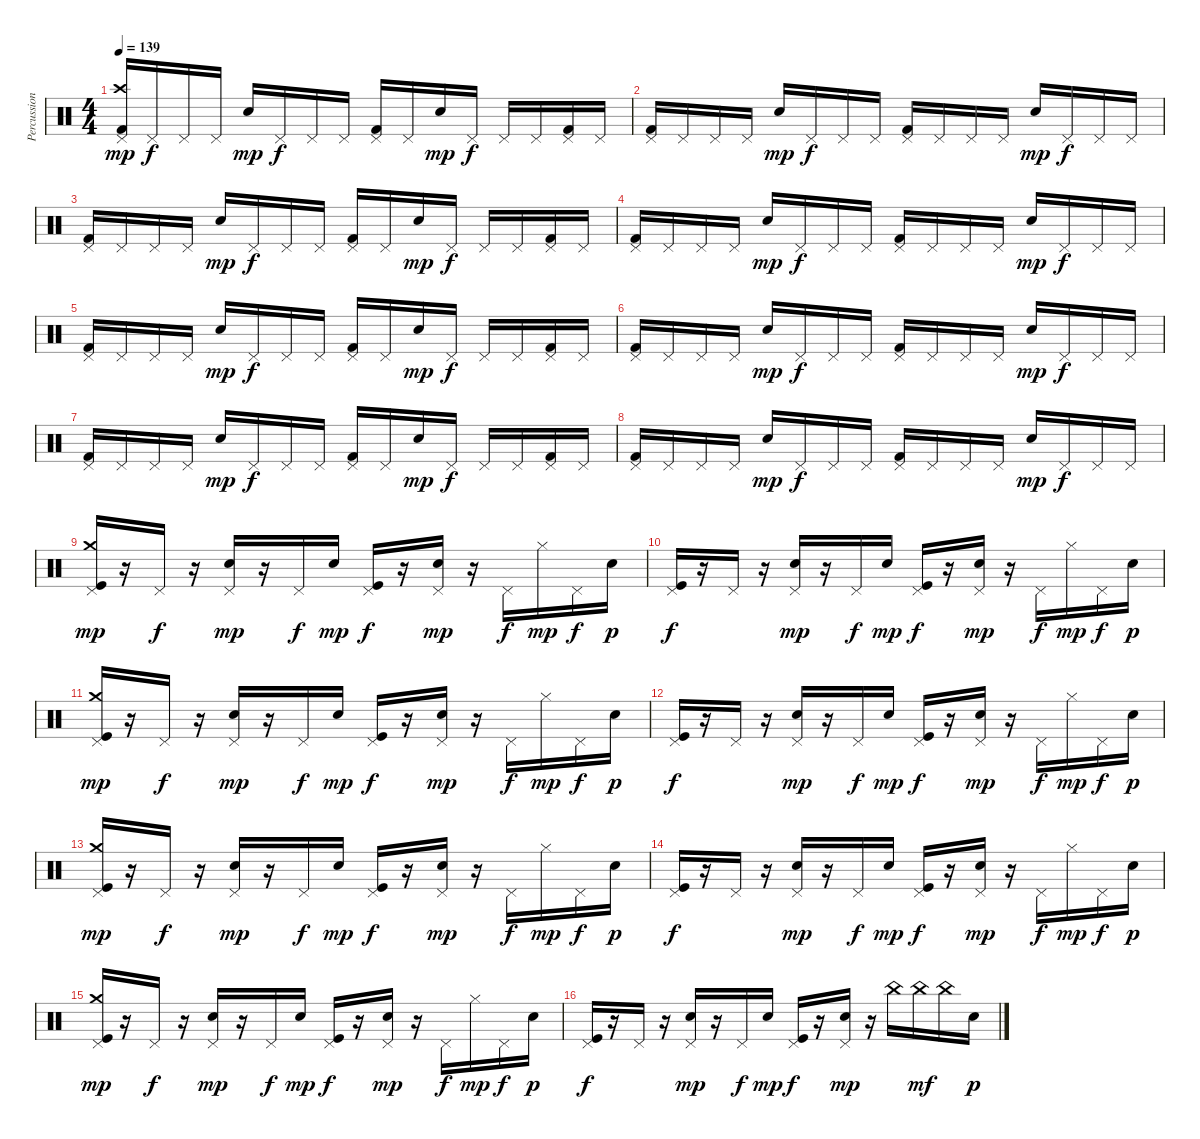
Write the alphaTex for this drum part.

\track ("Percussion" "Percussion") {instrument percussion}
\staff {score}
\articulation defaults
\ts (4 4)
\tempo 139
\clef neutral
\ks c
("Kick (hit) 2" "Crash high (hit)" "Pedal Hi-Hat (hit)").16{dy mp} "Pedal Hi-Hat (hit)".16{dy f} "Pedal Hi-Hat (hit)".16 "Pedal Hi-Hat (hit)".16 "Electric Snare (hit)".16{dy mp} "Pedal Hi-Hat (hit)".16{dy f} "Pedal Hi-Hat (hit)".16 "Pedal Hi-Hat (hit)".16 ("Kick (hit) 2" "Pedal Hi-Hat (hit)").16 "Pedal Hi-Hat (hit)".16 "Electric Snare (hit)".16{dy mp} "Pedal Hi-Hat (hit)".16{dy f} "Pedal Hi-Hat (hit)".16 "Pedal Hi-Hat (hit)".16 ("Kick (hit) 2" "Pedal Hi-Hat (hit)").16 "Pedal Hi-Hat (hit)".16 |
("Kick (hit) 2" "Pedal Hi-Hat (hit)").16 "Pedal Hi-Hat (hit)".16 "Pedal Hi-Hat (hit)".16 "Pedal Hi-Hat (hit)".16 "Electric Snare (hit)".16{dy mp} "Pedal Hi-Hat (hit)".16{dy f} "Pedal Hi-Hat (hit)".16 "Pedal Hi-Hat (hit)".16 ("Kick (hit) 2" "Pedal Hi-Hat (hit)").16 "Pedal Hi-Hat (hit)".16 "Pedal Hi-Hat (hit)".16 "Pedal Hi-Hat (hit)".16 "Electric Snare (hit)".16{dy mp} "Pedal Hi-Hat (hit)".16{dy f} "Pedal Hi-Hat (hit)".16 "Pedal Hi-Hat (hit)".16 |
("Kick (hit) 2" "Pedal Hi-Hat (hit)").16 "Pedal Hi-Hat (hit)".16 "Pedal Hi-Hat (hit)".16 "Pedal Hi-Hat (hit)".16 "Electric Snare (hit)".16{dy mp} "Pedal Hi-Hat (hit)".16{dy f} "Pedal Hi-Hat (hit)".16 "Pedal Hi-Hat (hit)".16 ("Kick (hit) 2" "Pedal Hi-Hat (hit)").16 "Pedal Hi-Hat (hit)".16 "Electric Snare (hit)".16{dy mp} "Pedal Hi-Hat (hit)".16{dy f} "Pedal Hi-Hat (hit)".16 "Pedal Hi-Hat (hit)".16 ("Kick (hit) 2" "Pedal Hi-Hat (hit)").16 "Pedal Hi-Hat (hit)".16 |
("Kick (hit) 2" "Pedal Hi-Hat (hit)").16 "Pedal Hi-Hat (hit)".16 "Pedal Hi-Hat (hit)".16 "Pedal Hi-Hat (hit)".16 "Electric Snare (hit)".16{dy mp} "Pedal Hi-Hat (hit)".16{dy f} "Pedal Hi-Hat (hit)".16 "Pedal Hi-Hat (hit)".16 ("Kick (hit) 2" "Pedal Hi-Hat (hit)").16 "Pedal Hi-Hat (hit)".16 "Pedal Hi-Hat (hit)".16 "Pedal Hi-Hat (hit)".16 "Electric Snare (hit)".16{dy mp} "Pedal Hi-Hat (hit)".16{dy f} "Pedal Hi-Hat (hit)".16 "Pedal Hi-Hat (hit)".16 |
("Kick (hit) 2" "Pedal Hi-Hat (hit)").16 "Pedal Hi-Hat (hit)".16 "Pedal Hi-Hat (hit)".16 "Pedal Hi-Hat (hit)".16 "Electric Snare (hit)".16{dy mp} "Pedal Hi-Hat (hit)".16{dy f} "Pedal Hi-Hat (hit)".16 "Pedal Hi-Hat (hit)".16 ("Kick (hit) 2" "Pedal Hi-Hat (hit)").16 "Pedal Hi-Hat (hit)".16 "Electric Snare (hit)".16{dy mp} "Pedal Hi-Hat (hit)".16{dy f} "Pedal Hi-Hat (hit)".16 "Pedal Hi-Hat (hit)".16 ("Kick (hit) 2" "Pedal Hi-Hat (hit)").16 "Pedal Hi-Hat (hit)".16 |
("Kick (hit) 2" "Pedal Hi-Hat (hit)").16 "Pedal Hi-Hat (hit)".16 "Pedal Hi-Hat (hit)".16 "Pedal Hi-Hat (hit)".16 "Electric Snare (hit)".16{dy mp} "Pedal Hi-Hat (hit)".16{dy f} "Pedal Hi-Hat (hit)".16 "Pedal Hi-Hat (hit)".16 ("Kick (hit) 2" "Pedal Hi-Hat (hit)").16 "Pedal Hi-Hat (hit)".16 "Pedal Hi-Hat (hit)".16 "Pedal Hi-Hat (hit)".16 "Electric Snare (hit)".16{dy mp} "Pedal Hi-Hat (hit)".16{dy f} "Pedal Hi-Hat (hit)".16 "Pedal Hi-Hat (hit)".16 |
("Kick (hit) 2" "Pedal Hi-Hat (hit)").16 "Pedal Hi-Hat (hit)".16 "Pedal Hi-Hat (hit)".16 "Pedal Hi-Hat (hit)".16 "Electric Snare (hit)".16{dy mp} "Pedal Hi-Hat (hit)".16{dy f} "Pedal Hi-Hat (hit)".16 "Pedal Hi-Hat (hit)".16 ("Kick (hit) 2" "Pedal Hi-Hat (hit)").16 "Pedal Hi-Hat (hit)".16 "Electric Snare (hit)".16{dy mp} "Pedal Hi-Hat (hit)".16{dy f} "Pedal Hi-Hat (hit)".16 "Pedal Hi-Hat (hit)".16 ("Kick (hit) 2" "Pedal Hi-Hat (hit)").16 "Pedal Hi-Hat (hit)".16 |
("Kick (hit) 2" "Pedal Hi-Hat (hit)").16 "Pedal Hi-Hat (hit)".16 "Pedal Hi-Hat (hit)".16 "Pedal Hi-Hat (hit)".16 "Electric Snare (hit)".16{dy mp} "Pedal Hi-Hat (hit)".16{dy f} "Pedal Hi-Hat (hit)".16 "Pedal Hi-Hat (hit)".16 ("Kick (hit) 2" "Pedal Hi-Hat (hit)").16 "Pedal Hi-Hat (hit)".16 "Pedal Hi-Hat (hit)".16 "Pedal Hi-Hat (hit)".16 "Electric Snare (hit)".16{dy mp} "Pedal Hi-Hat (hit)".16{dy f} "Pedal Hi-Hat (hit)".16 "Pedal Hi-Hat (hit)".16 |
("Pedal Hi-Hat (hit)" "Crash medium (hit)" "Kick (hit)").16{dy mp} r.16 "Pedal Hi-Hat (hit)".16{dy f} r.16 ("Pedal Hi-Hat (hit)" "Electric Snare (hit)").16{dy mp} r.16 "Pedal Hi-Hat (hit)".16{dy f} "Electric Snare (hit)".16{dy mp} ("Pedal Hi-Hat (hit)" "Kick (hit)").16{dy f} r.16 ("Pedal Hi-Hat (hit)" "Electric Snare (hit)").16{dy mp} r.16 "Pedal Hi-Hat (hit)".16{dy f} "Hi-Hat (closed)".16{dy mp} "Pedal Hi-Hat (hit)".16{dy f} "Electric Snare (hit)".16{dy p} |
("Pedal Hi-Hat (hit)" "Kick (hit)").16{dy f} r.16 "Pedal Hi-Hat (hit)".16 r.16 ("Pedal Hi-Hat (hit)" "Electric Snare (hit)").16{dy mp} r.16 "Pedal Hi-Hat (hit)".16{dy f} "Electric Snare (hit)".16{dy mp} ("Pedal Hi-Hat (hit)" "Kick (hit)").16{dy f} r.16 ("Pedal Hi-Hat (hit)" "Electric Snare (hit)").16{dy mp} r.16 "Pedal Hi-Hat (hit)".16{dy f} "Hi-Hat (closed)".16{dy mp} "Pedal Hi-Hat (hit)".16{dy f} "Electric Snare (hit)".16{dy p} |
("Pedal Hi-Hat (hit)" "Crash medium (hit)" "Kick (hit)").16{dy mp} r.16 "Pedal Hi-Hat (hit)".16{dy f} r.16 ("Pedal Hi-Hat (hit)" "Electric Snare (hit)").16{dy mp} r.16 "Pedal Hi-Hat (hit)".16{dy f} "Electric Snare (hit)".16{dy mp} ("Pedal Hi-Hat (hit)" "Kick (hit)").16{dy f} r.16 ("Pedal Hi-Hat (hit)" "Electric Snare (hit)").16{dy mp} r.16 "Pedal Hi-Hat (hit)".16{dy f} "Hi-Hat (closed)".16{dy mp} "Pedal Hi-Hat (hit)".16{dy f} "Electric Snare (hit)".16{dy p} |
("Pedal Hi-Hat (hit)" "Kick (hit)").16{dy f} r.16 "Pedal Hi-Hat (hit)".16 r.16 ("Pedal Hi-Hat (hit)" "Electric Snare (hit)").16{dy mp} r.16 "Pedal Hi-Hat (hit)".16{dy f} "Electric Snare (hit)".16{dy mp} ("Pedal Hi-Hat (hit)" "Kick (hit)").16{dy f} r.16 ("Pedal Hi-Hat (hit)" "Electric Snare (hit)").16{dy mp} r.16 "Pedal Hi-Hat (hit)".16{dy f} "Hi-Hat (closed)".16{dy mp} "Pedal Hi-Hat (hit)".16{dy f} "Electric Snare (hit)".16{dy p} |
("Pedal Hi-Hat (hit)" "Crash medium (hit)" "Kick (hit)").16{dy mp} r.16 "Pedal Hi-Hat (hit)".16{dy f} r.16 ("Pedal Hi-Hat (hit)" "Electric Snare (hit)").16{dy mp} r.16 "Pedal Hi-Hat (hit)".16{dy f} "Electric Snare (hit)".16{dy mp} ("Pedal Hi-Hat (hit)" "Kick (hit)").16{dy f} r.16 ("Pedal Hi-Hat (hit)" "Electric Snare (hit)").16{dy mp} r.16 "Pedal Hi-Hat (hit)".16{dy f} "Hi-Hat (closed)".16{dy mp} "Pedal Hi-Hat (hit)".16{dy f} "Electric Snare (hit)".16{dy p} |
("Pedal Hi-Hat (hit)" "Kick (hit)").16{dy f} r.16 "Pedal Hi-Hat (hit)".16 r.16 ("Pedal Hi-Hat (hit)" "Electric Snare (hit)").16{dy mp} r.16 "Pedal Hi-Hat (hit)".16{dy f} "Electric Snare (hit)".16{dy mp} ("Pedal Hi-Hat (hit)" "Kick (hit)").16{dy f} r.16 ("Pedal Hi-Hat (hit)" "Electric Snare (hit)").16{dy mp} r.16 "Pedal Hi-Hat (hit)".16{dy f} "Hi-Hat (closed)".16{dy mp} "Pedal Hi-Hat (hit)".16{dy f} "Electric Snare (hit)".16{dy p} |
("Pedal Hi-Hat (hit)" "Crash medium (hit)" "Kick (hit)").16{dy mp} r.16 "Pedal Hi-Hat (hit)".16{dy f} r.16 ("Pedal Hi-Hat (hit)" "Electric Snare (hit)").16{dy mp} r.16 "Pedal Hi-Hat (hit)".16{dy f} "Electric Snare (hit)".16{dy mp} ("Pedal Hi-Hat (hit)" "Kick (hit)").16{dy f} r.16 ("Pedal Hi-Hat (hit)" "Electric Snare (hit)").16{dy mp} r.16 "Pedal Hi-Hat (hit)".16{dy f} "Hi-Hat (closed)".16{dy mp} "Pedal Hi-Hat (hit)".16{dy f} "Electric Snare (hit)".16{dy p} |
("Pedal Hi-Hat (hit)" "Kick (hit)").16{dy f} r.16 "Pedal Hi-Hat (hit)".16 r.16 ("Pedal Hi-Hat (hit)" "Electric Snare (hit)").16{dy mp} r.16 "Pedal Hi-Hat (hit)".16{dy f} "Electric Snare (hit)".16{dy mp} ("Pedal Hi-Hat (hit)" "Kick (hit)").16{dy f} r.16 ("Pedal Hi-Hat (hit)" "Electric Snare (hit)").16{dy mp} r.16 "China (hit)".16 "China (hit)".16{dy mf} "China (hit)".16 "Electric Snare (hit)".16{dy p}
